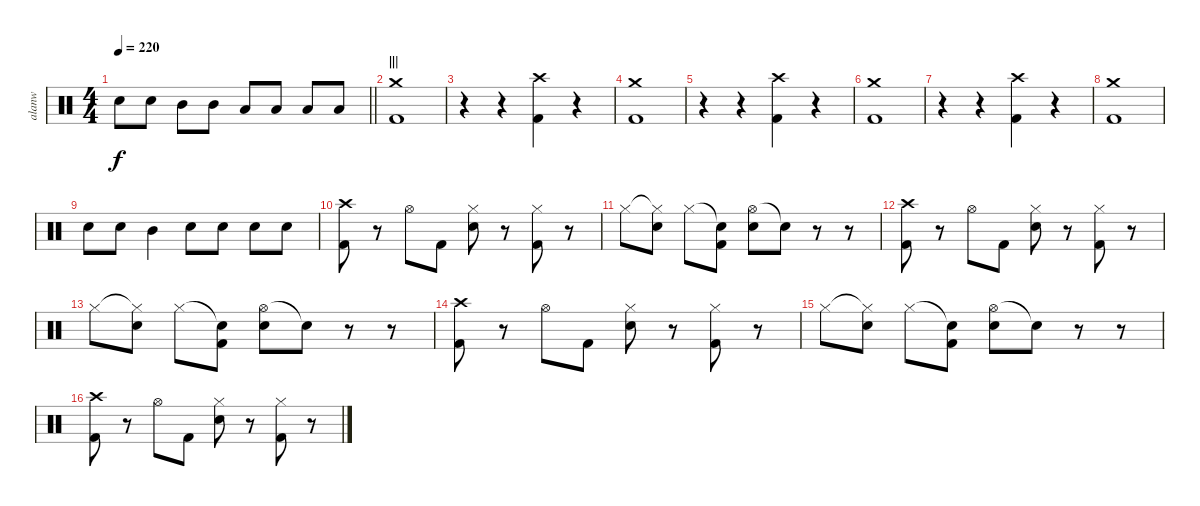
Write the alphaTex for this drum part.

\track ("alanw" "alanw") {instrument percussion}
\staff {score}
\articulation defaults
\ts (4 4)
\tempo 220
\clef neutral
\barLineRight lightlight
\ks c "Electric Snare (hit)".8{dy f} "Electric Snare (hit)".8 "Mid Tom (hit)".8 "Mid Tom (hit)".8 "Low Tom (hit)".8 "Low Tom (hit)".8 "Low Tom (hit)".8 "Low Tom (hit)".8
|
\section ("" "|||")
("Crash medium (hit)" "Kick (hit) 2").1 |
r.4 r.4 ("Crash high (hit)" "Kick (hit) 2").4 r.4 |
("Crash medium (hit)" "Kick (hit) 2").1 |
r.4 r.4 ("Crash high (hit)" "Kick (hit) 2").4 r.4 |
("Crash medium (hit)" "Kick (hit) 2").1 |
r.4 r.4 ("Crash high (hit)" "Kick (hit) 2").4 r.4 |
("Crash medium (hit)" "Kick (hit) 2").1 |
"Electric Snare (hit)".8 "Electric Snare (hit)".8 "Mid Tom (hit)".4 "Electric Snare (hit)".8 "Electric Snare (hit)".8 "Electric Snare (hit)".8 "Electric Snare (hit)".8 |
("Crash high (hit)" "Kick (hit) 2").8 r.8 "Hi-Hat (open)".8 "Kick (hit) 2".8 ("Hi-Hat (closed)" "Electric Snare (hit)").8 r.8 ("Hi-Hat (closed)" "Kick (hit) 2").8 r.8 |
"Hi-Hat (closed)".8 ("Hi-Hat (closed)"{t} "Electric Snare (hit)").8 "Hi-Hat (closed)".8 ("Snare (hit)"{t} "Kick (hit) 2").8 ("Hi-Hat (open)" "Electric Snare (hit)").8 "Snare (hit)"{t}.8 r.8 r.8 |
("Crash high (hit)" "Kick (hit) 2").8 r.8 "Hi-Hat (open)".8 "Kick (hit) 2".8 ("Hi-Hat (closed)" "Electric Snare (hit)").8 r.8 ("Hi-Hat (closed)" "Kick (hit) 2").8 r.8 |
"Hi-Hat (closed)".8 ("Hi-Hat (closed)"{t} "Electric Snare (hit)").8 "Hi-Hat (closed)".8 ("Snare (hit)"{t} "Kick (hit) 2").8 ("Hi-Hat (open)" "Electric Snare (hit)").8 "Snare (hit)"{t}.8 r.8 r.8 |
("Crash high (hit)" "Kick (hit) 2").8 r.8 "Hi-Hat (open)".8 "Kick (hit) 2".8 ("Hi-Hat (closed)" "Electric Snare (hit)").8 r.8 ("Hi-Hat (closed)" "Kick (hit) 2").8 r.8 |
"Hi-Hat (closed)".8 ("Hi-Hat (closed)"{t} "Electric Snare (hit)").8 "Hi-Hat (closed)".8 ("Snare (hit)"{t} "Kick (hit) 2").8 ("Hi-Hat (open)" "Electric Snare (hit)").8 "Snare (hit)"{t}.8 r.8 r.8 |
("Crash high (hit)" "Kick (hit) 2").8 r.8 "Hi-Hat (open)".8 "Kick (hit) 2".8 ("Hi-Hat (closed)" "Electric Snare (hit)").8 r.8 ("Hi-Hat (closed)" "Kick (hit) 2").8 r.8
